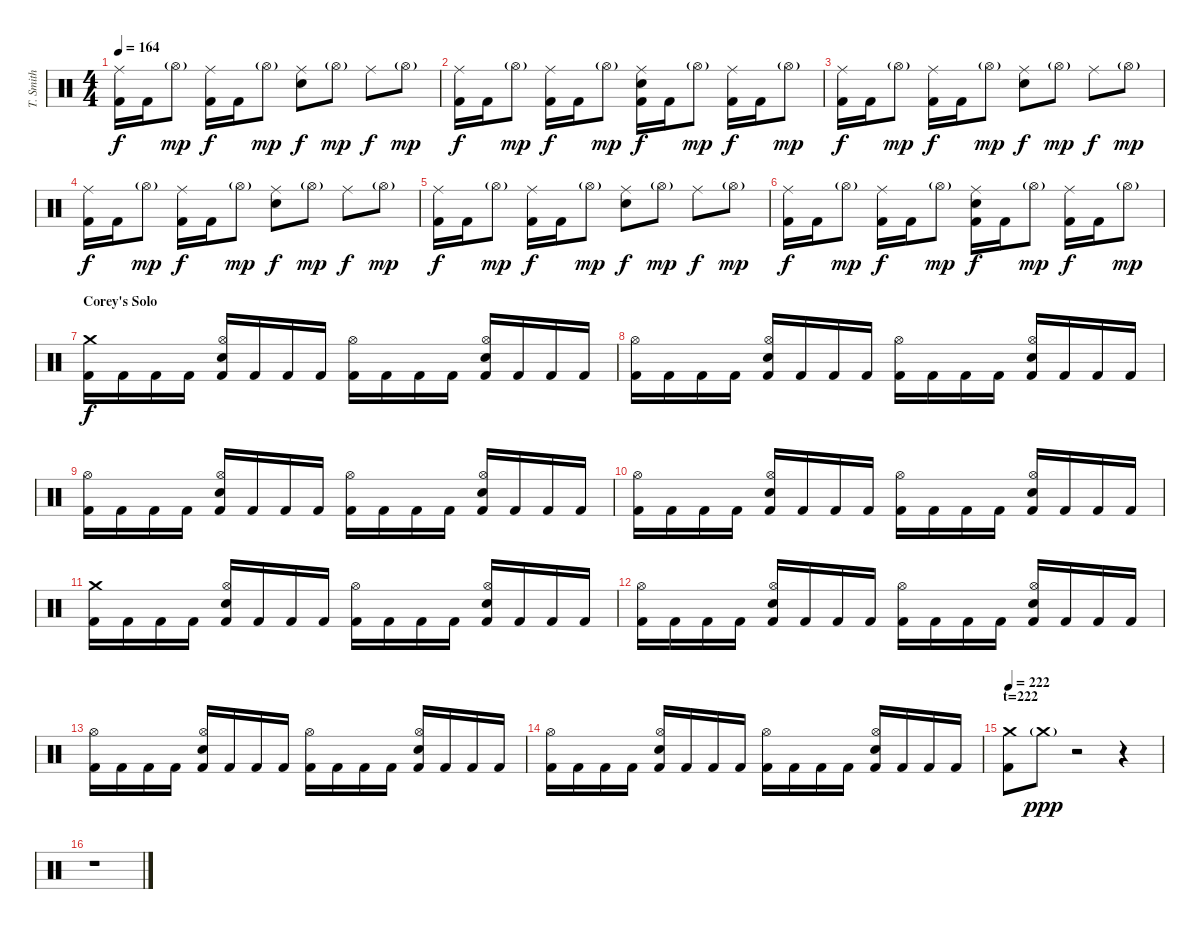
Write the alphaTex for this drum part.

\track ("T. Smith" "T. Smith") {instrument percussion}
\staff {score}
\articulation defaults
\ts (4 4)
\tempo 164
\clef neutral
\ks c
("Ride (middle)" "Kick (hit) 2").16{dy f} "Kick (hit) 2".16 "Hi-Hat (open)"{g}.8{dy mp} ("Ride (middle)" "Kick (hit) 2").16{dy f} "Kick (hit) 2".16 "Hi-Hat (open)"{g}.8{dy mp} ("Ride (middle)" "Electric Snare (hit)").8{dy f} "Hi-Hat (open)"{g}.8{dy mp} "Ride (middle)".8{dy f} "Hi-Hat (open)"{g}.8{dy mp} |
("Ride (middle)" "Kick (hit) 2").16{dy f} "Kick (hit) 2".16 "Hi-Hat (open)"{g}.8{dy mp} ("Ride (middle)" "Kick (hit) 2").16{dy f} "Kick (hit) 2".16 "Hi-Hat (open)"{g}.8{dy mp} ("Ride (middle)" "Electric Snare (hit)" "Kick (hit) 2").16{dy f} "Kick (hit) 2".16 "Hi-Hat (open)"{g}.8{dy mp} ("Ride (middle)" "Kick (hit) 2").16{dy f} "Kick (hit) 2".16 "Hi-Hat (open)"{g}.8{dy mp} |
("Ride (middle)" "Kick (hit) 2").16{dy f} "Kick (hit) 2".16 "Hi-Hat (open)"{g}.8{dy mp} ("Ride (middle)" "Kick (hit) 2").16{dy f} "Kick (hit) 2".16 "Hi-Hat (open)"{g}.8{dy mp} ("Ride (middle)" "Electric Snare (hit)").8{dy f} "Hi-Hat (open)"{g}.8{dy mp} "Ride (middle)".8{dy f} "Hi-Hat (open)"{g}.8{dy mp} |
("Ride (middle)" "Kick (hit) 2").16{dy f} "Kick (hit) 2".16 "Hi-Hat (open)"{g}.8{dy mp} ("Ride (middle)" "Kick (hit) 2").16{dy f} "Kick (hit) 2".16 "Hi-Hat (open)"{g}.8{dy mp} ("Ride (middle)" "Electric Snare (hit)").8{dy f} "Hi-Hat (open)"{g}.8{dy mp} "Ride (middle)".8{dy f} "Hi-Hat (open)"{g}.8{dy mp} |
("Ride (middle)" "Kick (hit) 2").16{dy f} "Kick (hit) 2".16 "Hi-Hat (open)"{g}.8{dy mp} ("Ride (middle)" "Kick (hit) 2").16{dy f} "Kick (hit) 2".16 "Hi-Hat (open)"{g}.8{dy mp} ("Ride (middle)" "Electric Snare (hit)").8{dy f} "Hi-Hat (open)"{g}.8{dy mp} "Ride (middle)".8{dy f} "Hi-Hat (open)"{g}.8{dy mp} |
("Ride (middle)" "Kick (hit) 2").16{dy f} "Kick (hit) 2".16 "Hi-Hat (open)"{g}.8{dy mp} ("Ride (middle)" "Kick (hit) 2").16{dy f} "Kick (hit) 2".16 "Hi-Hat (open)"{g}.8{dy mp} ("Ride (middle)" "Electric Snare (hit)" "Kick (hit) 2").16{dy f} "Kick (hit) 2".16 "Hi-Hat (open)"{g}.8{dy mp} ("Ride (middle)" "Kick (hit) 2").16{dy f} "Kick (hit) 2".16 "Hi-Hat (open)"{g}.8{dy mp} |
\section ("" "Corey's Solo")
("Crash medium (hit)" "Kick (hit) 2").16{dy f} "Kick (hit) 2".16 "Kick (hit) 2".16 "Kick (hit) 2".16 ("Hi-Hat (open)" "Electric Snare (hit)" "Kick (hit) 2").16 "Kick (hit) 2".16 "Kick (hit) 2".16 "Kick (hit) 2".16 ("Hi-Hat (open)" "Kick (hit) 2").16 "Kick (hit) 2".16 "Kick (hit) 2".16 "Kick (hit) 2".16 ("Hi-Hat (open)" "Electric Snare (hit)" "Kick (hit) 2").16 "Kick (hit) 2".16 "Kick (hit) 2".16 "Kick (hit) 2".16 |
("Hi-Hat (open)" "Kick (hit) 2").16 "Kick (hit) 2".16 "Kick (hit) 2".16 "Kick (hit) 2".16 ("Hi-Hat (open)" "Electric Snare (hit)" "Kick (hit) 2").16 "Kick (hit) 2".16 "Kick (hit) 2".16 "Kick (hit) 2".16 ("Hi-Hat (open)" "Kick (hit) 2").16 "Kick (hit) 2".16 "Kick (hit) 2".16 "Kick (hit) 2".16 ("Hi-Hat (open)" "Electric Snare (hit)" "Kick (hit) 2").16 "Kick (hit) 2".16 "Kick (hit) 2".16 "Kick (hit) 2".16 |
("Hi-Hat (open)" "Kick (hit) 2").16 "Kick (hit) 2".16 "Kick (hit) 2".16 "Kick (hit) 2".16 ("Hi-Hat (open)" "Electric Snare (hit)" "Kick (hit) 2").16 "Kick (hit) 2".16 "Kick (hit) 2".16 "Kick (hit) 2".16 ("Hi-Hat (open)" "Kick (hit) 2").16 "Kick (hit) 2".16 "Kick (hit) 2".16 "Kick (hit) 2".16 ("Hi-Hat (open)" "Electric Snare (hit)" "Kick (hit) 2").16 "Kick (hit) 2".16 "Kick (hit) 2".16 "Kick (hit) 2".16 |
("Hi-Hat (open)" "Kick (hit) 2").16 "Kick (hit) 2".16 "Kick (hit) 2".16 "Kick (hit) 2".16 ("Hi-Hat (open)" "Electric Snare (hit)" "Kick (hit) 2").16 "Kick (hit) 2".16 "Kick (hit) 2".16 "Kick (hit) 2".16 ("Hi-Hat (open)" "Kick (hit) 2").16 "Kick (hit) 2".16 "Kick (hit) 2".16 "Kick (hit) 2".16 ("Hi-Hat (open)" "Electric Snare (hit)" "Kick (hit) 2").16 "Kick (hit) 2".16 "Kick (hit) 2".16 "Kick (hit) 2".16 |
("Crash medium (hit)" "Kick (hit) 2").16 "Kick (hit) 2".16 "Kick (hit) 2".16 "Kick (hit) 2".16 ("Hi-Hat (open)" "Electric Snare (hit)" "Kick (hit) 2").16 "Kick (hit) 2".16 "Kick (hit) 2".16 "Kick (hit) 2".16 ("Hi-Hat (open)" "Kick (hit) 2").16 "Kick (hit) 2".16 "Kick (hit) 2".16 "Kick (hit) 2".16 ("Hi-Hat (open)" "Electric Snare (hit)" "Kick (hit) 2").16 "Kick (hit) 2".16 "Kick (hit) 2".16 "Kick (hit) 2".16 |
("Hi-Hat (open)" "Kick (hit) 2").16 "Kick (hit) 2".16 "Kick (hit) 2".16 "Kick (hit) 2".16 ("Hi-Hat (open)" "Electric Snare (hit)" "Kick (hit) 2").16 "Kick (hit) 2".16 "Kick (hit) 2".16 "Kick (hit) 2".16 ("Hi-Hat (open)" "Kick (hit) 2").16 "Kick (hit) 2".16 "Kick (hit) 2".16 "Kick (hit) 2".16 ("Hi-Hat (open)" "Electric Snare (hit)" "Kick (hit) 2").16 "Kick (hit) 2".16 "Kick (hit) 2".16 "Kick (hit) 2".16 |
("Hi-Hat (open)" "Kick (hit) 2").16 "Kick (hit) 2".16 "Kick (hit) 2".16 "Kick (hit) 2".16 ("Hi-Hat (open)" "Electric Snare (hit)" "Kick (hit) 2").16 "Kick (hit) 2".16 "Kick (hit) 2".16 "Kick (hit) 2".16 ("Hi-Hat (open)" "Kick (hit) 2").16 "Kick (hit) 2".16 "Kick (hit) 2".16 "Kick (hit) 2".16 ("Hi-Hat (open)" "Electric Snare (hit)" "Kick (hit) 2").16 "Kick (hit) 2".16 "Kick (hit) 2".16 "Kick (hit) 2".16 |
("Hi-Hat (open)" "Kick (hit) 2").16 "Kick (hit) 2".16 "Kick (hit) 2".16 "Kick (hit) 2".16 ("Hi-Hat (open)" "Electric Snare (hit)" "Kick (hit) 2").16 "Kick (hit) 2".16 "Kick (hit) 2".16 "Kick (hit) 2".16 ("Hi-Hat (open)" "Kick (hit) 2").16 "Kick (hit) 2".16 "Kick (hit) 2".16 "Kick (hit) 2".16 ("Hi-Hat (open)" "Electric Snare (hit)" "Kick (hit) 2").16 "Kick (hit) 2".16 "Kick (hit) 2".16 "Kick (hit) 2".16 |
\section ("" "t=222")
\tempo 222
("Crash medium (hit)" "Kick (hit) 2").8 "Crash medium (hit)"{g}.8{dy ppp} r.2 r.4 |
r.1
